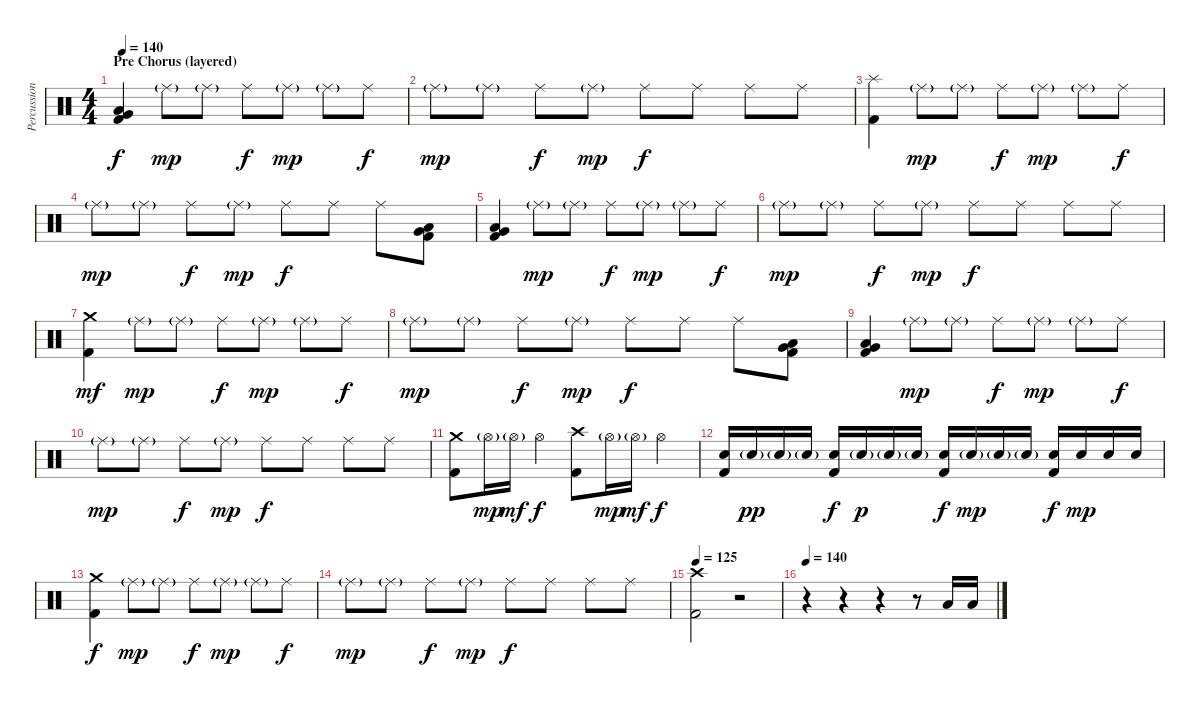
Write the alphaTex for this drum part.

\track ("Percussion" "Percussion") {instrument percussion}
\staff {score}
\articulation defaults
\ts (4 4)
\section ("" "Pre Chorus (layered) ")
\tempo 140
\clef neutral
\ks c
("Very Low Tom (hit)" "Low Floor Tom (hit)" "Kick (hit) 2").4{dy f} "Ride (middle)"{g}.8{dy mp} "Ride (middle)"{g}.8 "Ride (middle)".8{dy f} "Ride (middle)"{g}.8{dy mp} "Ride (middle)"{g}.8 "Ride (middle)".8{dy f} |
"Ride (middle)"{g}.8{dy mp} "Ride (middle)"{g}.8 "Ride (middle)".8{dy f} "Ride (middle)"{g}.8{dy mp} "Ride (middle)".8{dy f} "Ride (middle)".8 "Ride (middle)".8 "Ride (middle)".8 |
("Splash (hit)" "Kick (hit) 2").4 "Ride (middle)"{g}.8{dy mp} "Ride (middle)"{g}.8 "Ride (middle)".8{dy f} "Ride (middle)"{g}.8{dy mp} "Ride (middle)"{g}.8 "Ride (middle)".8{dy f} |
"Ride (middle)"{g}.8{dy mp} "Ride (middle)"{g}.8 "Ride (middle)".8{dy f} "Ride (middle)"{g}.8{dy mp} "Ride (middle)".8{dy f} "Ride (middle)".8 "Ride (middle)".8 ("Very Low Tom (hit)" "Low Floor Tom (hit)" "Kick (hit) 2").8 |
("Very Low Tom (hit)" "Low Floor Tom (hit)" "Kick (hit) 2").4 "Ride (middle)"{g}.8{dy mp} "Ride (middle)"{g}.8 "Ride (middle)".8{dy f} "Ride (middle)"{g}.8{dy mp} "Ride (middle)"{g}.8 "Ride (middle)".8{dy f} |
"Ride (middle)"{g}.8{dy mp} "Ride (middle)"{g}.8 "Ride (middle)".8{dy f} "Ride (middle)"{g}.8{dy mp} "Ride (middle)".8{dy f} "Ride (middle)".8 "Ride (middle)".8 "Ride (middle)".8 |
("Crash medium (hit)" "Kick (hit) 2").4{dy mf} "Ride (middle)"{g}.8{dy mp} "Ride (middle)"{g}.8 "Ride (middle)".8{dy f} "Ride (middle)"{g}.8{dy mp} "Ride (middle)"{g}.8 "Ride (middle)".8{dy f} |
"Ride (middle)"{g}.8{dy mp} "Ride (middle)"{g}.8 "Ride (middle)".8{dy f} "Ride (middle)"{g}.8{dy mp} "Ride (middle)".8{dy f} "Ride (middle)".8 "Ride (middle)".8 ("Very Low Tom (hit)" "Low Floor Tom (hit)" "Kick (hit) 2").8 |
("Very Low Tom (hit)" "Low Floor Tom (hit)" "Kick (hit) 2").4 "Ride (middle)"{g}.8{dy mp} "Ride (middle)"{g}.8 "Ride (middle)".8{dy f} "Ride (middle)"{g}.8{dy mp} "Ride (middle)"{g}.8 "Ride (middle)".8{dy f} |
"Ride (middle)"{g}.8{dy mp} "Ride (middle)"{g}.8 "Ride (middle)".8{dy f} "Ride (middle)"{g}.8{dy mp} "Ride (middle)".8{dy f} "Ride (middle)".8 "Ride (middle)".8 "Ride (middle)".8 |
("Crash medium (hit)" "Kick (hit) 2").8 "Hi-Hat (open)"{g}.16{dy mp} "Hi-Hat (open)"{g}.16{dy mf} "Hi-Hat (open)".4{dy f} ("Crash high (hit)" "Kick (hit) 2").8 "Hi-Hat (open)"{g}.16{dy mp} "Hi-Hat (open)"{g}.16{dy mf} "Hi-Hat (open)".4{dy f} |
("Electric Snare (hit)" "Kick (hit) 2").16 "Electric Snare (hit)"{g}.16{dy pp} "Electric Snare (hit)"{g}.16 "Electric Snare (hit)"{g}.16 ("Electric Snare (hit)" "Kick (hit) 2").16{dy f} "Electric Snare (hit)"{g}.16{dy p} "Electric Snare (hit)"{g}.16 "Electric Snare (hit)"{g}.16 ("Electric Snare (hit)" "Kick (hit) 2").16{dy f} "Electric Snare (hit)"{g}.16{dy mp} "Electric Snare (hit)"{g}.16 "Electric Snare (hit)"{g}.16 ("Electric Snare (hit)" "Kick (hit) 2").16{dy f} "Electric Snare (hit)".16{dy mp} "Electric Snare (hit)".16 "Electric Snare (hit)".16 |
("Crash medium (hit)" "Kick (hit) 2").4{dy f} "Ride (middle)"{g}.8{dy mp} "Ride (middle)"{g}.8 "Ride (middle)".8{dy f} "Ride (middle)"{g}.8{dy mp} "Ride (middle)"{g}.8 "Ride (middle)".8{dy f} |
"Ride (middle)"{g}.8{dy mp} "Ride (middle)"{g}.8 "Ride (middle)".8{dy f} "Ride (middle)"{g}.8{dy mp} "Ride (middle)".8{dy f} "Ride (middle)".8 "Ride (middle)".8 "Ride (middle)".8 |
\tempo 125
("Crash high (hit)" "Kick (hit) 2").2 r.2 |
\tempo 140
r.4 r.4 r.4 r.8 "Low Tom (hit)".16 "Low Tom (hit)".16
